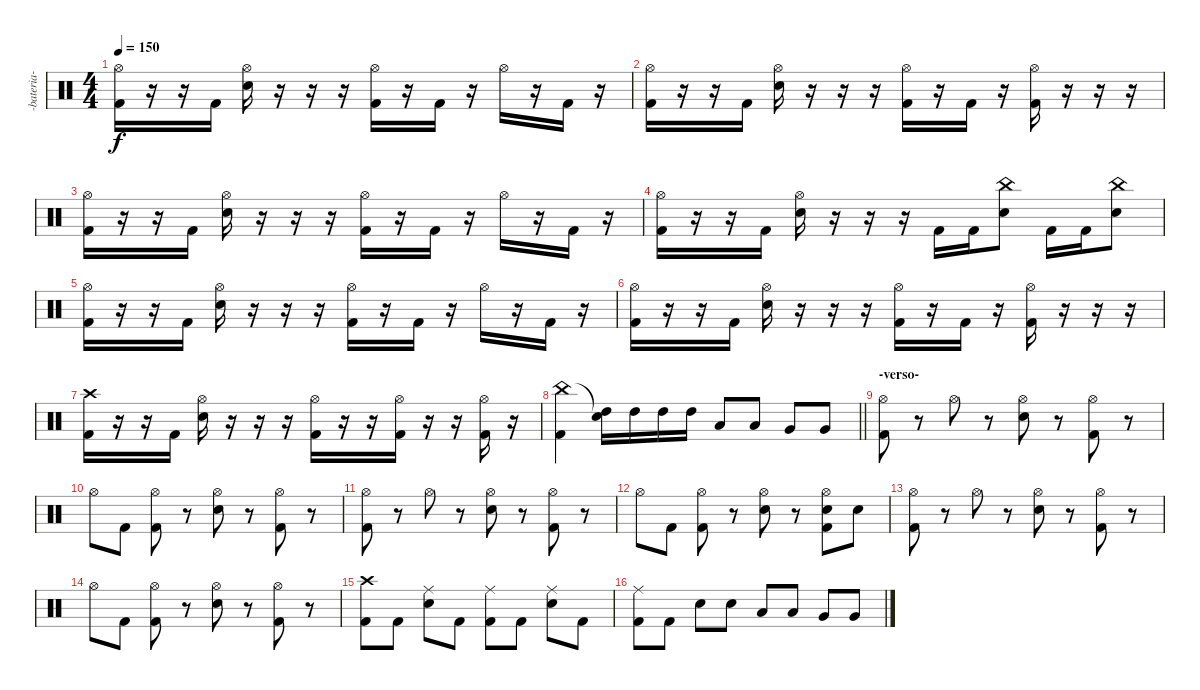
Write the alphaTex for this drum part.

\track ("-bateria-" "-bateria-") {instrument percussion}
\staff {score}
\articulation defaults
\ts (4 4)
\section ("" "")
\tempo 150
\clef neutral
\ks c
("Hi-Hat (open)" "Kick (hit) 2").16{dy f} r.16 r.16 "Kick (hit) 2".16 ("Hi-Hat (open)" "Snare (hit) 2").16 r.16 r.16 r.16 ("Hi-Hat (open)" "Kick (hit) 2").16 r.16 "Kick (hit) 2".16 r.16 "Hi-Hat (open)".16 r.16 "Kick (hit) 2".16 r.16 |
("Hi-Hat (open)" "Kick (hit) 2").16 r.16 r.16 "Kick (hit) 2".16 ("Hi-Hat (open)" "Snare (hit) 2").16 r.16 r.16 r.16 ("Hi-Hat (open)" "Kick (hit) 2").16 r.16 "Kick (hit) 2".16 r.16 ("Hi-Hat (open)" "Kick (hit) 2").16 r.16 r.16 r.16 |
("Hi-Hat (open)" "Kick (hit) 2").16 r.16 r.16 "Kick (hit) 2".16 ("Hi-Hat (open)" "Snare (hit) 2").16 r.16 r.16 r.16 ("Hi-Hat (open)" "Kick (hit) 2").16 r.16 "Kick (hit) 2".16 r.16 "Hi-Hat (open)".16 r.16 "Kick (hit) 2".16 r.16 |
("Hi-Hat (open)" "Kick (hit) 2").16 r.16 r.16 "Kick (hit) 2".16 ("Hi-Hat (open)" "Snare (hit) 2").16 r.16 r.16 r.16 "Kick (hit) 2".16 "Kick (hit) 2".16 ("China (hit)" "Snare (hit) 2").8 "Kick (hit) 2".16 "Kick (hit) 2".16 ("China (hit)" "Snare (hit) 2").8 |
("Hi-Hat (open)" "Kick (hit) 2").16 r.16 r.16 "Kick (hit) 2".16 ("Hi-Hat (open)" "Snare (hit) 2").16 r.16 r.16 r.16 ("Hi-Hat (open)" "Kick (hit) 2").16 r.16 "Kick (hit) 2".16 r.16 "Hi-Hat (open)".16 r.16 "Kick (hit) 2".16 r.16 |
("Hi-Hat (open)" "Kick (hit) 2").16 r.16 r.16 "Kick (hit) 2".16 ("Hi-Hat (open)" "Snare (hit) 2").16 r.16 r.16 r.16 ("Hi-Hat (open)" "Kick (hit) 2").16 r.16 "Kick (hit) 2".16 r.16 ("Hi-Hat (open)" "Kick (hit) 2").16 r.16 r.16 r.16 |
("Crash high (hit)" "Kick (hit) 2").16 r.16 r.16 "Kick (hit) 2".16 ("Hi-Hat (open)" "Snare (hit) 2").16 r.16 r.16 r.16 ("Hi-Hat (open)" "Kick (hit) 2").16 r.16 r.16 ("Hi-Hat (open)" "Kick (hit) 2").16 r.16 r.16 ("Hi-Hat (open)" "Kick (hit) 2").16 r.16 |
\barLineRight lightlight
("China (hit)" "Kick (hit) 2").4 ("Snare (hit)"{t} "High Tom (hit)").16 "High Tom (hit)".16 "High Tom (hit)".16 "High Tom (hit)".16 "Low Tom (hit)".8 "Low Tom (hit)".8 "Very Low Tom (hit)".8 "Very Low Tom (hit)".8 |
\section ("" "-verso-")
("Hi-Hat (open)" "Kick (hit) 2").8 r.8 "Hi-Hat (open)".8 r.8 ("Hi-Hat (open)" "Electric Snare (hit)").8 r.8 ("Hi-Hat (open)" "Kick (hit) 2").8 r.8 |
"Hi-Hat (open)".8 "Kick (hit) 2".8 ("Hi-Hat (open)" "Kick (hit) 2").8 r.8 ("Hi-Hat (open)" "Electric Snare (hit)").8 r.8 ("Hi-Hat (open)" "Kick (hit) 2").8 r.8 |
("Hi-Hat (open)" "Kick (hit) 2").8 r.8 "Hi-Hat (open)".8 r.8 ("Hi-Hat (open)" "Electric Snare (hit)").8 r.8 ("Hi-Hat (open)" "Kick (hit) 2").8 r.8 |
"Hi-Hat (open)".8 "Kick (hit) 2".8 ("Hi-Hat (open)" "Kick (hit) 2").8 r.8 ("Hi-Hat (open)" "Electric Snare (hit)").8 r.8 ("Hi-Hat (open)" "Electric Snare (hit)" "Kick (hit) 2").8 "Electric Snare (hit)".8 |
("Hi-Hat (open)" "Kick (hit) 2").8 r.8 "Hi-Hat (open)".8 r.8 ("Hi-Hat (open)" "Electric Snare (hit)").8 r.8 ("Hi-Hat (open)" "Kick (hit) 2").8 r.8 |
"Hi-Hat (open)".8 "Kick (hit) 2".8 ("Hi-Hat (open)" "Kick (hit) 2").8 r.8 ("Hi-Hat (open)" "Electric Snare (hit)").8 r.8 ("Hi-Hat (open)" "Kick (hit) 2").8 r.8 |
("Crash high (hit)" "Kick (hit) 2").8 "Kick (hit) 2".8 ("Ride (middle)" "Electric Snare (hit)").8 "Kick (hit) 2".8 ("Ride (middle)" "Kick (hit) 2").8 "Kick (hit) 2".8 ("Ride (middle)" "Electric Snare (hit)").8 "Kick (hit) 2".8 |
("Ride (middle)" "Kick (hit) 2").8 "Kick (hit) 2".8 "Electric Snare (hit)".8 "Electric Snare (hit)".8 "Low Tom (hit)".8 "Low Tom (hit)".8 "Very Low Tom (hit)".8 "Very Low Tom (hit)".8
